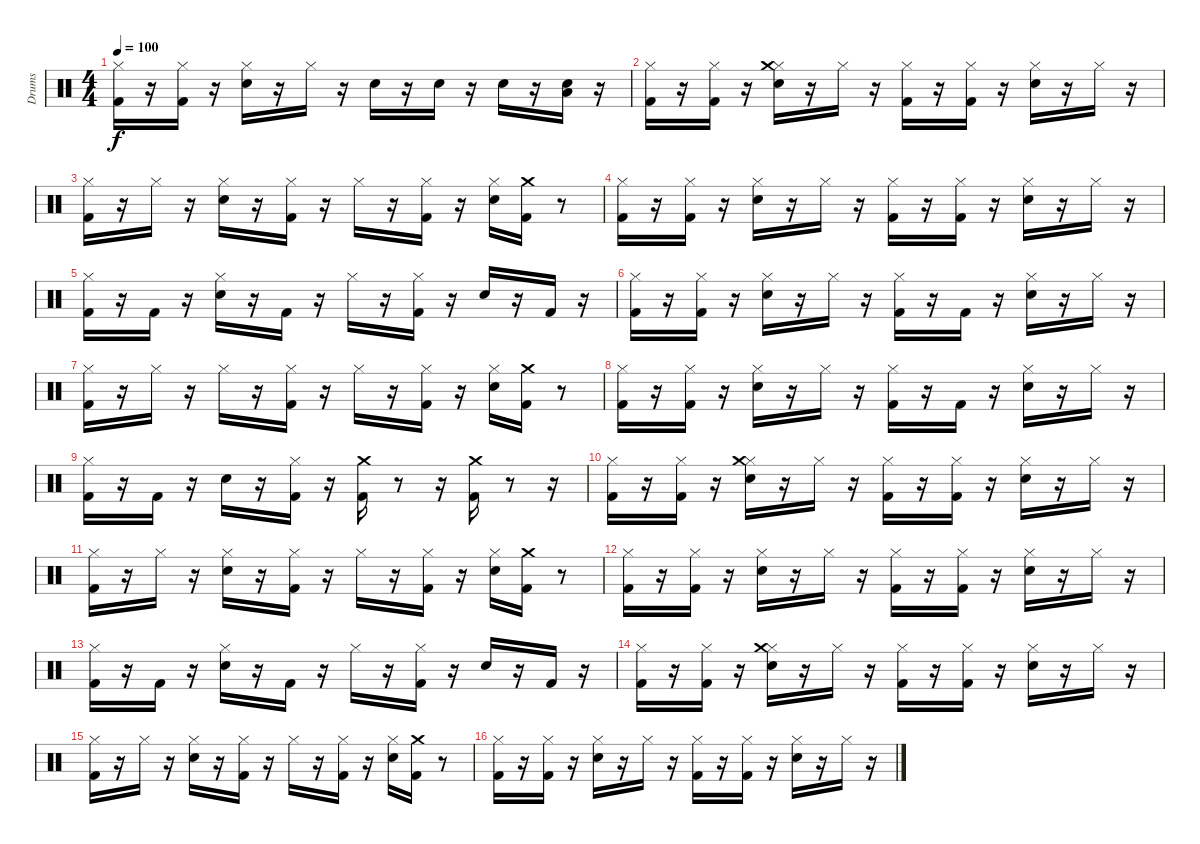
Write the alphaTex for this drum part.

\bracketExtendMode groupsimilarinstruments
\otherSystemsTrackNameOrientation horizontal
\track ("Drumkit" "Drums") {instrument percussion}
\staff {score}
\articulation defaults
\ts (4 4)
\tempo 100
\clef neutral
\ks c
("Kick (hit) 2" "Hi-Hat (closed)").16{dy f beam Down} r.16{beam Down} ("Kick (hit) 2" "Hi-Hat (closed)").16{beam Down} r.16{beam Down} ("Snare (hit) 2" "Hi-Hat (closed)").16{beam Down} r.16{beam Down} "Hi-Hat (closed)".16{beam Down} r.16{beam Down} "Snare (hit) 2".16{beam Down} r.16{beam Down} "Snare (hit) 2".16{beam Down} r.16{beam Down} "Snare (hit) 2".16{beam Down} r.16{beam Down} ("Snare (hit) 2" "Low Tom (hit)").16{beam Down} r.16{beam Down} |
("Kick (hit) 2" "Hi-Hat (closed)").16{beam Down} r.16{beam Down} ("Kick (hit) 2" "Hi-Hat (closed)").16{beam Down} r.16{beam Down} ("Snare (hit) 2" "Hi-Hat (closed)" "Crash medium (hit)").16{beam Down} r.16{beam Down} "Hi-Hat (closed)".16{beam Down} r.16{beam Down} ("Kick (hit) 2" "Hi-Hat (closed)").16{beam Down} r.16{beam Down} ("Kick (hit) 2" "Hi-Hat (closed)").16{beam Down} r.16{beam Down} ("Snare (hit) 2" "Hi-Hat (closed)").16{beam Down} r.16{beam Down} "Hi-Hat (closed)".16{beam Down} r.16{beam Down} |
("Kick (hit) 2" "Hi-Hat (closed)").16{beam Down} r.16{beam Down} "Hi-Hat (closed)".16{beam Down} r.16{beam Down} ("Snare (hit) 2" "Hi-Hat (closed)").16{beam Down} r.16{beam Down} ("Kick (hit) 2" "Hi-Hat (closed)").16{beam Down} r.16{beam Down} "Hi-Hat (closed)".16{beam Down} r.16{beam Down} ("Kick (hit) 2" "Hi-Hat (closed)").16{beam Down} r.16{beam Down} ("Snare (hit) 2" "Hi-Hat (closed)").16{beam Down} ("Kick (hit) 2" "Crash medium (hit)").16{beam Down} r.8{beam Down} |
("Kick (hit) 2" "Hi-Hat (closed)").16{beam Down} r.16{beam Down} ("Kick (hit) 2" "Hi-Hat (closed)").16{beam Down} r.16{beam Down} ("Snare (hit) 2" "Hi-Hat (closed)").16{beam Down} r.16{beam Down} "Hi-Hat (closed)".16{beam Down} r.16{beam Down} ("Kick (hit) 2" "Hi-Hat (closed)").16{beam Down} r.16{beam Down} ("Kick (hit) 2" "Hi-Hat (closed)").16{beam Down} r.16{beam Down} ("Snare (hit) 2" "Hi-Hat (closed)").16{beam Down} r.16{beam Down} "Hi-Hat (closed)".16{beam Down} r.16{beam Down} |
("Kick (hit) 2" "Hi-Hat (closed)").16{beam Down} r.16{beam Down} "Kick (hit) 2".16{beam Down} r.16{beam Down} ("Snare (hit) 2" "Hi-Hat (closed)").16{beam Down} r.16{beam Down} "Kick (hit) 2".16{beam Down} r.16{beam Down} "Hi-Hat (closed)".16{beam Down} r.16{beam Down} ("Kick (hit) 2" "Hi-Hat (closed)").16{beam Down} r.16{beam Down} "Snare (hit) 2".16{beam Up} r.16{beam Up} "Kick (hit) 2".16{beam Up} r.16{beam Up} |
("Kick (hit) 2" "Hi-Hat (closed)").16{beam Down} r.16{beam Down} ("Kick (hit) 2" "Hi-Hat (closed)").16{beam Down} r.16{beam Down} ("Snare (hit) 2" "Hi-Hat (closed)").16{beam Down} r.16{beam Down} "Hi-Hat (closed)".16{beam Down} r.16{beam Down} ("Kick (hit) 2" "Hi-Hat (closed)").16{beam Down} r.16{beam Down} "Kick (hit) 2".16{beam Down} r.16{beam Down} ("Snare (hit) 2" "Hi-Hat (closed)").16{beam Down} r.16{beam Down} "Hi-Hat (closed)".16{beam Down} r.16{beam Down} |
("Kick (hit) 2" "Hi-Hat (closed)").16{beam Down} r.16{beam Down} "Hi-Hat (closed)".16{beam Down} r.16{beam Down} "Hi-Hat (closed)".16{beam Down} r.16{beam Down} ("Kick (hit) 2" "Hi-Hat (closed)").16{beam Down} r.16{beam Down} "Hi-Hat (closed)".16{beam Down} r.16{beam Down} ("Kick (hit) 2" "Hi-Hat (closed)").16{beam Down} r.16{beam Down} ("Snare (hit) 2" "Hi-Hat (closed)").16{beam Down} ("Kick (hit) 2" "Crash medium (hit)").16{beam Down} r.8{beam Down} |
("Kick (hit) 2" "Hi-Hat (closed)").16{beam Down} r.16{beam Down} ("Kick (hit) 2" "Hi-Hat (closed)").16{beam Down} r.16{beam Down} ("Snare (hit) 2" "Hi-Hat (closed)").16{beam Down} r.16{beam Down} "Hi-Hat (closed)".16{beam Down} r.16{beam Down} ("Kick (hit) 2" "Hi-Hat (closed)").16{beam Down} r.16{beam Down} "Kick (hit) 2".16{beam Down} r.16{beam Down} ("Snare (hit) 2" "Hi-Hat (closed)").16{beam Down} r.16{beam Down} "Hi-Hat (closed)".16{beam Down} r.16{beam Down} |
("Kick (hit) 2" "Hi-Hat (closed)").16{beam Down} r.16{beam Down} "Kick (hit) 2".16{beam Down} r.16{beam Down} "Snare (hit) 2".16{beam Down} r.16{beam Down} ("Kick (hit) 2" "Hi-Hat (closed)").16{beam Down} r.16{beam Down} ("Kick (hit) 2" "Crash medium (hit)").16{beam Down} r.8{beam Down} r.16{beam Down} ("Kick (hit) 2" "Crash medium (hit)").16{beam Down} r.8{beam Down} r.16{beam Down} |
("Kick (hit) 2" "Hi-Hat (closed)").16{beam Down} r.16{beam Down} ("Kick (hit) 2" "Hi-Hat (closed)").16{beam Down} r.16{beam Down} ("Snare (hit) 2" "Hi-Hat (closed)" "Crash medium (hit)").16{beam Down} r.16{beam Down} "Hi-Hat (closed)".16{beam Down} r.16{beam Down} ("Kick (hit) 2" "Hi-Hat (closed)").16{beam Down} r.16{beam Down} ("Kick (hit) 2" "Hi-Hat (closed)").16{beam Down} r.16{beam Down} ("Snare (hit) 2" "Hi-Hat (closed)").16{beam Down} r.16{beam Down} "Hi-Hat (closed)".16{beam Down} r.16{beam Down} |
("Kick (hit) 2" "Hi-Hat (closed)").16{beam Down} r.16{beam Down} "Hi-Hat (closed)".16{beam Down} r.16{beam Down} ("Snare (hit) 2" "Hi-Hat (closed)").16{beam Down} r.16{beam Down} ("Kick (hit) 2" "Hi-Hat (closed)").16{beam Down} r.16{beam Down} "Hi-Hat (closed)".16{beam Down} r.16{beam Down} ("Kick (hit) 2" "Hi-Hat (closed)").16{beam Down} r.16{beam Down} ("Snare (hit) 2" "Hi-Hat (closed)").16{beam Down} ("Kick (hit) 2" "Crash medium (hit)").16{beam Down} r.8{beam Down} |
("Kick (hit) 2" "Hi-Hat (closed)").16{beam Down} r.16{beam Down} ("Kick (hit) 2" "Hi-Hat (closed)").16{beam Down} r.16{beam Down} ("Snare (hit) 2" "Hi-Hat (closed)").16{beam Down} r.16{beam Down} "Hi-Hat (closed)".16{beam Down} r.16{beam Down} ("Kick (hit) 2" "Hi-Hat (closed)").16{beam Down} r.16{beam Down} ("Kick (hit) 2" "Hi-Hat (closed)").16{beam Down} r.16{beam Down} ("Snare (hit) 2" "Hi-Hat (closed)").16{beam Down} r.16{beam Down} "Hi-Hat (closed)".16{beam Down} r.16{beam Down} |
("Kick (hit) 2" "Hi-Hat (closed)").16{beam Down} r.16{beam Down} "Kick (hit) 2".16{beam Down} r.16{beam Down} ("Snare (hit) 2" "Hi-Hat (closed)").16{beam Down} r.16{beam Down} "Kick (hit) 2".16{beam Down} r.16{beam Down} "Hi-Hat (closed)".16{beam Down} r.16{beam Down} ("Kick (hit) 2" "Hi-Hat (closed)").16{beam Down} r.16{beam Down} "Snare (hit) 2".16{beam Up} r.16{beam Up} "Kick (hit) 2".16{beam Up} r.16{beam Up} |
("Kick (hit) 2" "Hi-Hat (closed)").16{beam Down} r.16{beam Down} ("Kick (hit) 2" "Hi-Hat (closed)").16{beam Down} r.16{beam Down} ("Snare (hit) 2" "Hi-Hat (closed)" "Crash medium (hit)").16{beam Down} r.16{beam Down} "Hi-Hat (closed)".16{beam Down} r.16{beam Down} ("Kick (hit) 2" "Hi-Hat (closed)").16{beam Down} r.16{beam Down} ("Kick (hit) 2" "Hi-Hat (closed)").16{beam Down} r.16{beam Down} ("Snare (hit) 2" "Hi-Hat (closed)").16{beam Down} r.16{beam Down} "Hi-Hat (closed)".16{beam Down} r.16{beam Down} |
("Kick (hit) 2" "Hi-Hat (closed)").16{beam Down} r.16{beam Down} "Hi-Hat (closed)".16{beam Down} r.16{beam Down} ("Snare (hit) 2" "Hi-Hat (closed)").16{beam Down} r.16{beam Down} ("Kick (hit) 2" "Hi-Hat (closed)").16{beam Down} r.16{beam Down} "Hi-Hat (closed)".16{beam Down} r.16{beam Down} ("Kick (hit) 2" "Hi-Hat (closed)").16{beam Down} r.16{beam Down} ("Snare (hit) 2" "Hi-Hat (closed)").16{beam Down} ("Kick (hit) 2" "Crash medium (hit)").16{beam Down} r.8{beam Down} |
("Kick (hit) 2" "Hi-Hat (closed)").16{beam Down} r.16{beam Down} ("Kick (hit) 2" "Hi-Hat (closed)").16{beam Down} r.16{beam Down} ("Snare (hit) 2" "Hi-Hat (closed)").16{beam Down} r.16{beam Down} "Hi-Hat (closed)".16{beam Down} r.16{beam Down} ("Kick (hit) 2" "Hi-Hat (closed)").16{beam Down} r.16{beam Down} ("Kick (hit) 2" "Hi-Hat (closed)").16{beam Down} r.16{beam Down} ("Snare (hit) 2" "Hi-Hat (closed)").16{beam Down} r.16{beam Down} "Hi-Hat (closed)".16{beam Down} r.16{beam Down}
